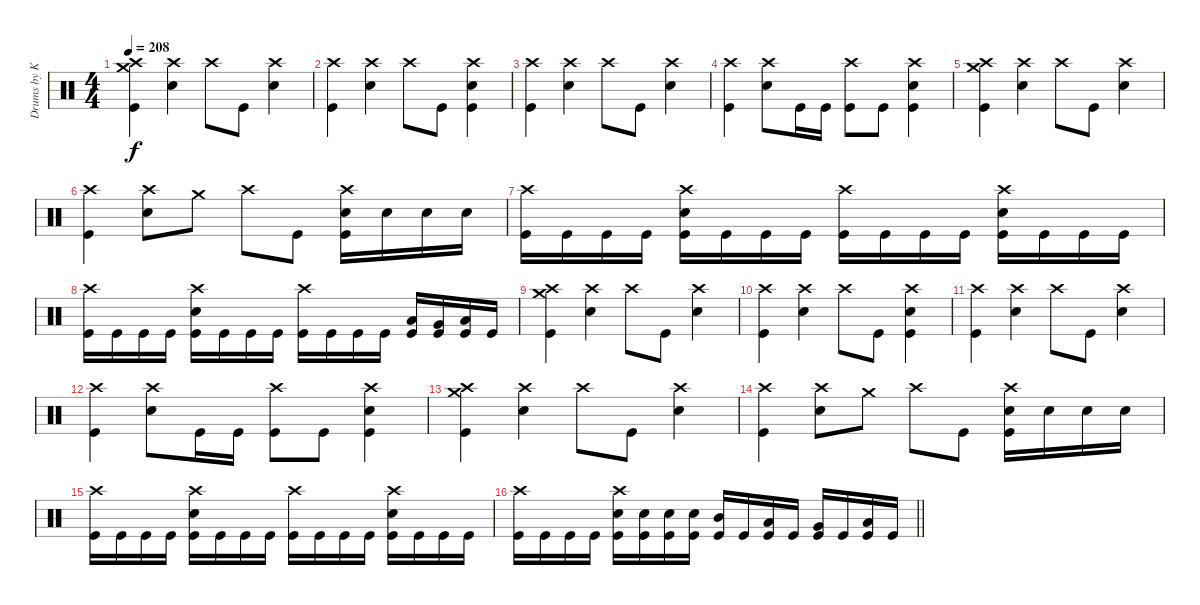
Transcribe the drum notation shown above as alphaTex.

\track ("Drums by Kwonnie" "Drums by K") {instrument percussion}
\staff {score}
\articulation defaults
\ts (4 4)
\tempo 208
\clef neutral
\ks c
("Crash high (hit)" "Crash medium (hit)" "Kick (hit)").4{dy f} ("Crash high (hit)" "Electric Snare (hit)").4 "Crash high (hit)".8 "Kick (hit)".8 ("Crash high (hit)" "Electric Snare (hit)").4 |
("Crash high (hit)" "Kick (hit)").4 ("Crash high (hit)" "Electric Snare (hit)").4 "Crash high (hit)".8 "Kick (hit)".8 ("Crash high (hit)" "Electric Snare (hit)" "Kick (hit)").4 |
("Crash high (hit)" "Kick (hit)").4 ("Crash high (hit)" "Electric Snare (hit)").4 "Crash high (hit)".8 "Kick (hit)".8 ("Crash high (hit)" "Electric Snare (hit)").4 |
("Crash high (hit)" "Kick (hit)").4 ("Crash high (hit)" "Electric Snare (hit)").8 "Kick (hit)".16 "Kick (hit)".16 ("Crash high (hit)" "Kick (hit)").8 "Kick (hit)".8 ("Crash high (hit)" "Electric Snare (hit)" "Kick (hit)").4 |
("Crash high (hit)" "Crash medium (hit)" "Kick (hit)").4 ("Crash high (hit)" "Electric Snare (hit)").4 "Crash high (hit)".8 "Kick (hit)".8 ("Crash high (hit)" "Electric Snare (hit)").4 |
("Crash high (hit)" "Kick (hit)").4 ("Crash high (hit)" "Electric Snare (hit)").8 "Crash medium (hit)".8 "Crash high (hit)".8 "Kick (hit)".8 ("Crash high (hit)" "Electric Snare (hit)" "Kick (hit)").16 "Electric Snare (hit)".16 "Electric Snare (hit)".16 "Electric Snare (hit)".16 |
("Crash high (hit)" "Kick (hit)").16 "Kick (hit)".16 "Kick (hit)".16 "Kick (hit)".16 ("Crash high (hit)" "Electric Snare (hit)" "Kick (hit)").16 "Kick (hit)".16 "Kick (hit)".16 "Kick (hit)".16 ("Crash high (hit)" "Kick (hit)").16 "Kick (hit)".16 "Kick (hit)".16 "Kick (hit)".16 ("Crash high (hit)" "Electric Snare (hit)" "Kick (hit)").16 "Kick (hit)".16 "Kick (hit)".16 "Kick (hit)".16 |
("Crash high (hit)" "Kick (hit)").16 "Kick (hit)".16 "Kick (hit)".16 "Kick (hit)".16 ("Crash high (hit)" "Electric Snare (hit)" "Kick (hit)").16 "Kick (hit)".16 "Kick (hit)".16 "Kick (hit)".16 ("Crash high (hit)" "Kick (hit)").16 "Kick (hit)".16 "Kick (hit)".16 "Kick (hit)".16 ("Low Tom (hit)" "Kick (hit)").16 ("Very Low Tom (hit)" "Kick (hit)").16 ("Low Floor Tom (hit)" "Kick (hit)").16 "Kick (hit)".16 |
("Crash high (hit)" "Crash medium (hit)" "Kick (hit)").4 ("Crash high (hit)" "Electric Snare (hit)").4 "Crash high (hit)".8 "Kick (hit)".8 ("Crash high (hit)" "Electric Snare (hit)").4 |
("Crash high (hit)" "Kick (hit)").4 ("Crash high (hit)" "Electric Snare (hit)").4 "Crash high (hit)".8 "Kick (hit)".8 ("Crash high (hit)" "Electric Snare (hit)" "Kick (hit)").4 |
("Crash high (hit)" "Kick (hit)").4 ("Crash high (hit)" "Electric Snare (hit)").4 "Crash high (hit)".8 "Kick (hit)".8 ("Crash high (hit)" "Electric Snare (hit)").4 |
("Crash high (hit)" "Kick (hit)").4 ("Crash high (hit)" "Electric Snare (hit)").8 "Kick (hit)".16 "Kick (hit)".16 ("Crash high (hit)" "Kick (hit)").8 "Kick (hit)".8 ("Crash high (hit)" "Electric Snare (hit)" "Kick (hit)").4 |
("Crash high (hit)" "Crash medium (hit)" "Kick (hit)").4 ("Crash high (hit)" "Electric Snare (hit)").4 "Crash high (hit)".8 "Kick (hit)".8 ("Crash high (hit)" "Electric Snare (hit)").4 |
("Crash high (hit)" "Kick (hit)").4 ("Crash high (hit)" "Electric Snare (hit)").8 "Crash medium (hit)".8 "Crash high (hit)".8 "Kick (hit)".8 ("Crash high (hit)" "Electric Snare (hit)" "Kick (hit)").16 "Electric Snare (hit)".16 "Electric Snare (hit)".16 "Electric Snare (hit)".16 |
("Crash high (hit)" "Kick (hit)").16 "Kick (hit)".16 "Kick (hit)".16 "Kick (hit)".16 ("Crash high (hit)" "Electric Snare (hit)" "Kick (hit)").16 "Kick (hit)".16 "Kick (hit)".16 "Kick (hit)".16 ("Crash high (hit)" "Kick (hit)").16 "Kick (hit)".16 "Kick (hit)".16 "Kick (hit)".16 ("Crash high (hit)" "Electric Snare (hit)" "Kick (hit)").16 "Kick (hit)".16 "Kick (hit)".16 "Kick (hit)".16 |
\barLineRight lightlight
("Crash high (hit)" "Kick (hit)").16 "Kick (hit)".16 "Kick (hit)".16 "Kick (hit)".16 ("Crash high (hit)" "Electric Snare (hit)" "Kick (hit)").16 ("Electric Snare (hit)" "Kick (hit)").16 ("Electric Snare (hit)" "Kick (hit)").16 ("Electric Snare (hit)" "Kick (hit)").16 ("Mid Tom (hit)" "Kick (hit)").16 "Kick (hit)".16 ("Low Tom (hit)" "Kick (hit)").16 "Kick (hit)".16 ("Very Low Tom (hit)" "Kick (hit)").16 "Kick (hit)".16 ("Low Floor Tom (hit)" "Kick (hit)").16 "Kick (hit)".16
